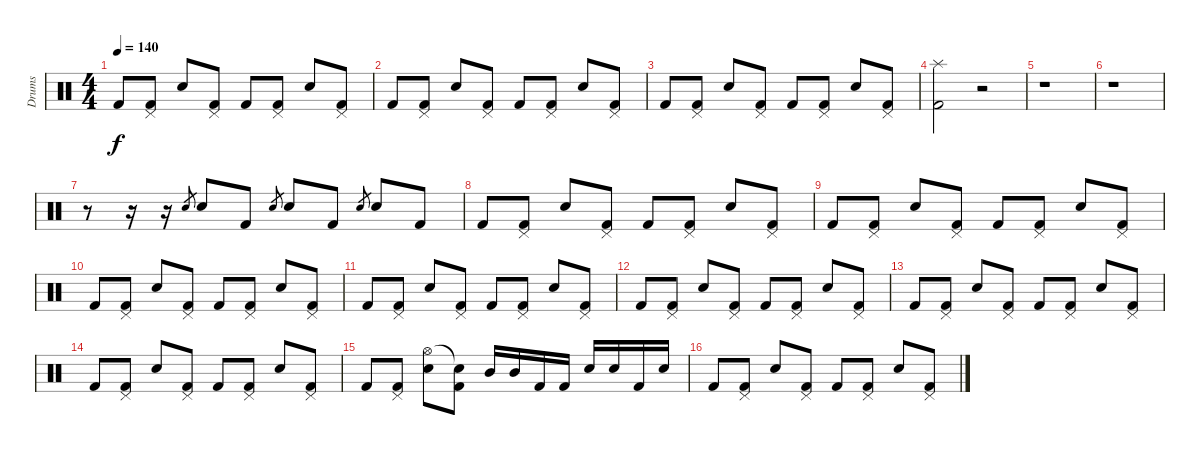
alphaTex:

\track ("Drums" "Drums") {instrument percussion}
\staff {score}
\articulation defaults
\ts (4 4)
\tempo 140
\clef neutral
\ks c "Kick (hit) 2".8{dy f}
("Pedal Hi-Hat (hit)" "Kick (hit) 2").8 "Electric Snare (hit)".8 ("Pedal Hi-Hat (hit)" "Kick (hit) 2").8 "Kick (hit) 2".8 ("Pedal Hi-Hat (hit)" "Kick (hit) 2").8 "Electric Snare (hit)".8 ("Pedal Hi-Hat (hit)" "Kick (hit) 2").8 |
"Kick (hit) 2".8 ("Pedal Hi-Hat (hit)" "Kick (hit) 2").8 "Electric Snare (hit)".8 ("Pedal Hi-Hat (hit)" "Kick (hit) 2").8 "Kick (hit) 2".8 ("Pedal Hi-Hat (hit)" "Kick (hit) 2").8 "Electric Snare (hit)".8 ("Pedal Hi-Hat (hit)" "Kick (hit) 2").8 |
"Kick (hit) 2".8 ("Pedal Hi-Hat (hit)" "Kick (hit) 2").8 "Electric Snare (hit)".8 ("Pedal Hi-Hat (hit)" "Kick (hit) 2").8 "Kick (hit) 2".8 ("Pedal Hi-Hat (hit)" "Kick (hit) 2").8 "Electric Snare (hit)".8 ("Pedal Hi-Hat (hit)" "Kick (hit) 2").8 |
("Splash (hit)" "Kick (hit) 2").2 r.2 |
r.1 |
r.1 |
r.8 r.16 r.16 "Electric Snare (hit)".8{gr} "Electric Snare (hit)".8 "Kick (hit) 2".8 "Electric Snare (hit)".8{gr} "Electric Snare (hit)".8 "Kick (hit) 2".8 "Electric Snare (hit)".8{gr} "Electric Snare (hit)".8 "Kick (hit) 2".8 |
"Kick (hit) 2".8 ("Pedal Hi-Hat (hit)" "Kick (hit) 2").8 "Electric Snare (hit)".8 ("Pedal Hi-Hat (hit)" "Kick (hit) 2").8 "Kick (hit) 2".8 ("Pedal Hi-Hat (hit)" "Kick (hit) 2").8 "Electric Snare (hit)".8 ("Pedal Hi-Hat (hit)" "Kick (hit) 2").8 |
"Kick (hit) 2".8 ("Pedal Hi-Hat (hit)" "Kick (hit) 2").8 "Electric Snare (hit)".8 ("Pedal Hi-Hat (hit)" "Kick (hit) 2").8 "Kick (hit) 2".8 ("Pedal Hi-Hat (hit)" "Kick (hit) 2").8 "Electric Snare (hit)".8 ("Pedal Hi-Hat (hit)" "Kick (hit) 2").8 |
"Kick (hit) 2".8 ("Pedal Hi-Hat (hit)" "Kick (hit) 2").8 "Electric Snare (hit)".8 ("Pedal Hi-Hat (hit)" "Kick (hit) 2").8 "Kick (hit) 2".8 ("Pedal Hi-Hat (hit)" "Kick (hit) 2").8 "Electric Snare (hit)".8 ("Pedal Hi-Hat (hit)" "Kick (hit) 2").8 |
"Kick (hit) 2".8 ("Pedal Hi-Hat (hit)" "Kick (hit) 2").8 "Electric Snare (hit)".8 ("Pedal Hi-Hat (hit)" "Kick (hit) 2").8 "Kick (hit) 2".8 ("Pedal Hi-Hat (hit)" "Kick (hit) 2").8 "Electric Snare (hit)".8 ("Pedal Hi-Hat (hit)" "Kick (hit) 2").8 |
"Kick (hit) 2".8 ("Pedal Hi-Hat (hit)" "Kick (hit) 2").8 "Electric Snare (hit)".8 ("Pedal Hi-Hat (hit)" "Kick (hit) 2").8 "Kick (hit) 2".8 ("Pedal Hi-Hat (hit)" "Kick (hit) 2").8 "Electric Snare (hit)".8 ("Pedal Hi-Hat (hit)" "Kick (hit) 2").8 |
"Kick (hit) 2".8 ("Pedal Hi-Hat (hit)" "Kick (hit) 2").8 "Electric Snare (hit)".8 ("Pedal Hi-Hat (hit)" "Kick (hit) 2").8 "Kick (hit) 2".8 ("Pedal Hi-Hat (hit)" "Kick (hit) 2").8 "Electric Snare (hit)".8 ("Pedal Hi-Hat (hit)" "Kick (hit) 2").8 |
"Kick (hit) 2".8 ("Pedal Hi-Hat (hit)" "Kick (hit) 2").8 "Electric Snare (hit)".8 ("Pedal Hi-Hat (hit)" "Kick (hit) 2").8 "Kick (hit) 2".8 ("Pedal Hi-Hat (hit)" "Kick (hit) 2").8 "Electric Snare (hit)".8 ("Pedal Hi-Hat (hit)" "Kick (hit) 2").8 |
"Kick (hit) 2".8 ("Pedal Hi-Hat (hit)" "Kick (hit) 2").8 ("Hi-Hat (open)" "Electric Snare (hit)").8 ("Snare (hit)"{t} "Kick (hit) 2").8 "Mid Tom (hit)".16 "Mid Tom (hit)".16 "Kick (hit) 2".16 "Kick (hit) 2".16 "Electric Snare (hit)".16 "Electric Snare (hit)".16 "Kick (hit) 2".16 "Electric Snare (hit)".16 |
"Kick (hit) 2".8 ("Pedal Hi-Hat (hit)" "Kick (hit) 2").8 "Electric Snare (hit)".8 ("Pedal Hi-Hat (hit)" "Kick (hit) 2").8 "Kick (hit) 2".8 ("Pedal Hi-Hat (hit)" "Kick (hit) 2").8 "Electric Snare (hit)".8 ("Pedal Hi-Hat (hit)" "Kick (hit) 2").8
